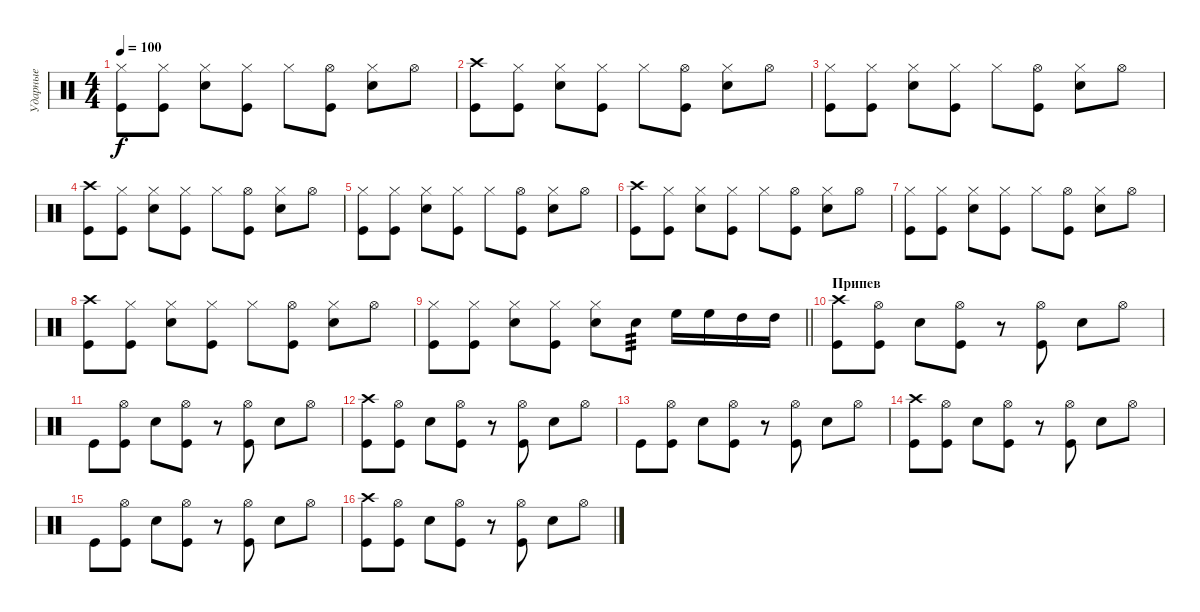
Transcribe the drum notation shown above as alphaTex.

\track ("Ударные" "Ударные") {instrument percussion}
\staff {score}
\articulation defaults
\ts (4 4)
\tempo 100
\clef neutral
\ks c
("Kick (hit)" "Hi-Hat (closed)").8{dy f} ("Kick (hit)" "Hi-Hat (closed)").8 ("Snare (hit) 2" "Hi-Hat (closed)").8 ("Hi-Hat (closed)" "Kick (hit)").8 "Hi-Hat (closed)".8 ("Kick (hit)" "Hi-Hat (open)").8 ("Hi-Hat (closed)" "Snare (hit) 2").8 "Hi-Hat (open)".8 |
("Kick (hit)" "Crash high (hit)").8 ("Kick (hit)" "Hi-Hat (closed)").8 ("Snare (hit) 2" "Hi-Hat (closed)").8 ("Hi-Hat (closed)" "Kick (hit)").8 "Hi-Hat (closed)".8 ("Hi-Hat (open)" "Kick (hit)").8 ("Hi-Hat (closed)" "Snare (hit) 2").8 "Hi-Hat (open)".8 |
("Kick (hit)" "Hi-Hat (closed)").8 ("Kick (hit)" "Hi-Hat (closed)").8 ("Snare (hit) 2" "Hi-Hat (closed)").8 ("Hi-Hat (closed)" "Kick (hit)").8 "Hi-Hat (closed)".8 ("Kick (hit)" "Hi-Hat (open)").8 ("Hi-Hat (closed)" "Snare (hit) 2").8 "Hi-Hat (open)".8 |
("Kick (hit)" "Crash high (hit)").8 ("Kick (hit)" "Hi-Hat (closed)").8 ("Snare (hit) 2" "Hi-Hat (closed)").8 ("Hi-Hat (closed)" "Kick (hit)").8 "Hi-Hat (closed)".8 ("Hi-Hat (open)" "Kick (hit)").8 ("Hi-Hat (closed)" "Snare (hit) 2").8 "Hi-Hat (open)".8 |
("Kick (hit)" "Hi-Hat (closed)").8 ("Kick (hit)" "Hi-Hat (closed)").8 ("Snare (hit) 2" "Hi-Hat (closed)").8 ("Hi-Hat (closed)" "Kick (hit)").8 "Hi-Hat (closed)".8 ("Kick (hit)" "Hi-Hat (open)").8 ("Hi-Hat (closed)" "Snare (hit) 2").8 "Hi-Hat (open)".8 |
("Kick (hit)" "Crash high (hit)").8 ("Kick (hit)" "Hi-Hat (closed)").8 ("Snare (hit) 2" "Hi-Hat (closed)").8 ("Hi-Hat (closed)" "Kick (hit)").8 "Hi-Hat (closed)".8 ("Hi-Hat (open)" "Kick (hit)").8 ("Hi-Hat (closed)" "Snare (hit) 2").8 "Hi-Hat (open)".8 |
("Kick (hit)" "Hi-Hat (closed)").8 ("Kick (hit)" "Hi-Hat (closed)").8 ("Snare (hit) 2" "Hi-Hat (closed)").8 ("Hi-Hat (closed)" "Kick (hit)").8 "Hi-Hat (closed)".8 ("Kick (hit)" "Hi-Hat (open)").8 ("Hi-Hat (closed)" "Snare (hit) 2").8 "Hi-Hat (open)".8 |
("Kick (hit)" "Crash high (hit)").8 ("Kick (hit)" "Hi-Hat (closed)").8 ("Snare (hit) 2" "Hi-Hat (closed)").8 ("Hi-Hat (closed)" "Kick (hit)").8 "Hi-Hat (closed)".8 ("Hi-Hat (open)" "Kick (hit)").8 ("Hi-Hat (closed)" "Snare (hit) 2").8 "Hi-Hat (open)".8 |
\barLineRight lightlight
("Kick (hit)" "Hi-Hat (closed)").8 ("Kick (hit)" "Hi-Hat (closed)").8 ("Snare (hit) 2" "Hi-Hat (closed)").8 ("Hi-Hat (closed)" "Kick (hit)").8 ("Snare (hit) 2" "Hi-Hat (closed)").8 "Snare (hit) 2".8{tp 3} "High Floor Tom (hit)".16 "High Floor Tom (hit)".16 "High Tom (hit)".16 "High Tom (hit)".16 |
\section ("" "Припев")
("Crash high (hit)" "Kick (hit)").8 ("Hi-Hat (open)" "Kick (hit)").8 "Snare (hit) 2".8 ("Hi-Hat (open)" "Kick (hit)").8 r.8 ("Hi-Hat (open)" "Kick (hit)").8 "Snare (hit) 2".8 "Hi-Hat (open)".8 |
"Kick (hit)".8 ("Hi-Hat (open)" "Kick (hit)").8 "Snare (hit) 2".8 ("Hi-Hat (open)" "Kick (hit)").8 r.8 ("Hi-Hat (open)" "Kick (hit)").8 "Snare (hit) 2".8 "Hi-Hat (open)".8 |
("Crash high (hit)" "Kick (hit)").8 ("Hi-Hat (open)" "Kick (hit)").8 "Snare (hit) 2".8 ("Hi-Hat (open)" "Kick (hit)").8 r.8 ("Hi-Hat (open)" "Kick (hit)").8 "Snare (hit) 2".8 "Hi-Hat (open)".8 |
"Kick (hit)".8 ("Hi-Hat (open)" "Kick (hit)").8 "Snare (hit) 2".8 ("Hi-Hat (open)" "Kick (hit)").8 r.8 ("Hi-Hat (open)" "Kick (hit)").8 "Snare (hit) 2".8 "Hi-Hat (open)".8 |
("Crash high (hit)" "Kick (hit)").8 ("Hi-Hat (open)" "Kick (hit)").8 "Snare (hit) 2".8 ("Hi-Hat (open)" "Kick (hit)").8 r.8 ("Hi-Hat (open)" "Kick (hit)").8 "Snare (hit) 2".8 "Hi-Hat (open)".8 |
"Kick (hit)".8 ("Hi-Hat (open)" "Kick (hit)").8 "Snare (hit) 2".8 ("Hi-Hat (open)" "Kick (hit)").8 r.8 ("Hi-Hat (open)" "Kick (hit)").8 "Snare (hit) 2".8 "Hi-Hat (open)".8 |
("Crash high (hit)" "Kick (hit)").8 ("Hi-Hat (open)" "Kick (hit)").8 "Snare (hit) 2".8 ("Hi-Hat (open)" "Kick (hit)").8 r.8 ("Hi-Hat (open)" "Kick (hit)").8 "Snare (hit) 2".8 "Hi-Hat (open)".8
